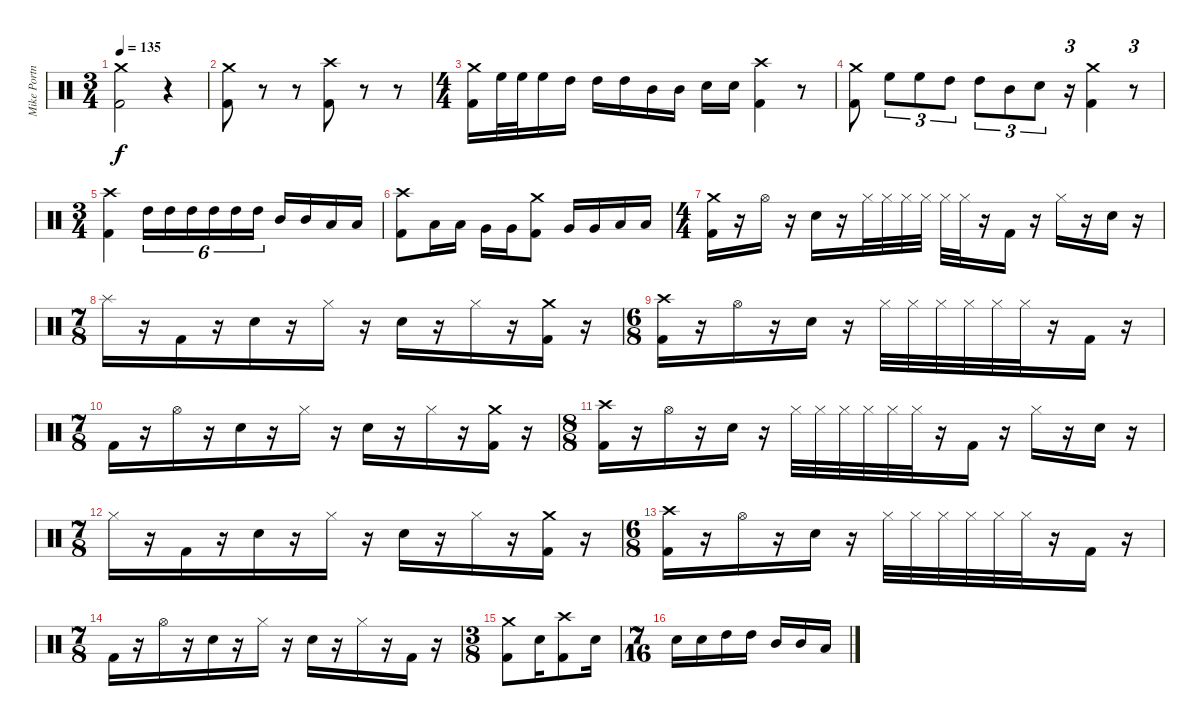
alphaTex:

\track ("Mike Portnoy Drums" "Mike Portn") {instrument percussion}
\staff {score}
\articulation defaults
\ts (3 4)
\tempo 135
\clef neutral
\ks c
("Crash medium (hit)" "Kick (hit) 2").2{dy f} r.4 |
("Crash medium (hit)" "Kick (hit) 2").8 r.8 r.8 ("Crash high (hit)" "Kick (hit) 2").8 r.8 r.8 |
\ts (4 4)
("Crash medium (hit)" "Kick (hit) 2").16 "High Floor Tom (hit)".32 "High Floor Tom (hit)".32 "High Floor Tom (hit)".16 "High Tom (hit)".16 "High Tom (hit)".16 "High Tom (hit)".16 "Mid Tom (hit)".16 "Mid Tom (hit)".16 "Snare (hit) 2".16 "Snare (hit) 2".16 ("Crash high (hit)" "Kick (hit) 2").4 r.8 |
("Crash medium (hit)" "Kick (hit) 2").8 "High Floor Tom (hit)".8{tu (3 2)} "High Floor Tom (hit)".8{tu (3 2)} "High Tom (hit)".8{tu (3 2)} "High Tom (hit)".8{tu (3 2)} "Mid Tom (hit)".8{tu (3 2)} "Snare (hit) 2".8{tu (3 2)} r.16{tu (3 2)} ("Crash medium (hit)" "Kick (hit) 2").4 r.8{tu (3 2)} |
\ts (3 4)
("Crash high (hit)" "Kick (hit) 2").4 "High Tom (hit)".16{tu (6 4)} "High Tom (hit)".16{tu (6 4)} "High Tom (hit)".16{tu (6 4)} "High Tom (hit)".16{tu (6 4)} "High Tom (hit)".16{tu (6 4)} "High Tom (hit)".16{tu (6 4)} "Mid Tom (hit)".16 "Mid Tom (hit)".16 "Low Tom (hit)".16 "Low Tom (hit)".16 |
("Crash high (hit)" "Kick (hit) 2").8 "Low Tom (hit)".16 "Low Tom (hit)".16 "Very Low Tom (hit)".16 "Very Low Tom (hit)".16 ("Crash medium (hit)" "Kick (hit) 2").8 "Very Low Tom (hit)".16 "Very Low Tom (hit)".16 "Low Floor Tom (hit)".16 "Low Floor Tom (hit)".16 |
\ts (4 4)
("Crash medium (hit)" "Kick (hit) 2").16 r.16 "Hi-Hat (open)".16 r.16 "Snare (hit) 2".16 r.16 "Hi-Hat (closed)".32 "Hi-Hat (closed)".32 "Hi-Hat (closed)".32 "Hi-Hat (closed)".32 "Hi-Hat (closed)".32 "Hi-Hat (closed)".32 r.16 "Kick (hit) 2".16 r.16 "Hi-Hat (closed)".16 r.16 "Snare (hit) 2".16 r.16 |
\ts (7 8)
"Splash (hit)".16 r.16 "Kick (hit) 2".16 r.16 "Snare (hit) 2".16 r.16 "Hi-Hat (closed)".16 r.16 "Snare (hit) 2".16 r.16 "Hi-Hat (closed)".16 r.16 ("Crash medium (hit)" "Kick (hit) 2").16 r.16 |
\ts (6 8)
("Crash high (hit)" "Kick (hit) 2").16 r.16 "Hi-Hat (open)".16 r.16 "Snare (hit) 2".16 r.16 "Hi-Hat (closed)".32 "Hi-Hat (closed)".32 "Hi-Hat (closed)".32 "Hi-Hat (closed)".32 "Hi-Hat (closed)".32 "Hi-Hat (closed)".32 r.16 "Kick (hit) 2".16 r.16 |
\ts (7 8)
"Kick (hit) 2".16 r.16 "Hi-Hat (open)".16 r.16 "Snare (hit) 2".16 r.16 "Hi-Hat (closed)".16 r.16 "Snare (hit) 2".16 r.16 "Hi-Hat (closed)".16 r.16 ("Crash medium (hit)" "Kick (hit) 2").16 r.16 |
\ts (8 8)
("Crash high (hit)" "Kick (hit) 2").16 r.16 "Hi-Hat (open)".16 r.16 "Snare (hit) 2".16 r.16 "Hi-Hat (closed)".32 "Hi-Hat (closed)".32 "Hi-Hat (closed)".32 "Hi-Hat (closed)".32 "Hi-Hat (closed)".32 "Hi-Hat (closed)".32 r.16 "Kick (hit) 2".16 r.16 "Hi-Hat (closed)".16 r.16 "Snare (hit) 2".16 r.16 |
\ts (7 8)
"Hi-Hat (closed)".16 r.16 "Kick (hit) 2".16 r.16 "Snare (hit) 2".16 r.16 "Hi-Hat (closed)".16 r.16 "Snare (hit) 2".16 r.16 "Hi-Hat (closed)".16 r.16 ("Crash medium (hit)" "Kick (hit) 2").16 r.16 |
\ts (6 8)
("Crash high (hit)" "Kick (hit) 2").16 r.16 "Hi-Hat (open)".16 r.16 "Snare (hit) 2".16 r.16 "Hi-Hat (closed)".32 "Hi-Hat (closed)".32 "Hi-Hat (closed)".32 "Hi-Hat (closed)".32 "Hi-Hat (closed)".32 "Hi-Hat (closed)".32 r.16 "Kick (hit) 2".16 r.16 |
\ts (7 8)
"Kick (hit) 2".16 r.16 "Hi-Hat (open)".16 r.16 "Snare (hit) 2".16 r.16 "Hi-Hat (closed)".16 r.16 "Snare (hit) 2".16 r.16 "Hi-Hat (closed)".16 r.16 "Kick (hit) 2".16 r.16 |
\ts (3 8)
("Crash medium (hit)" "Kick (hit) 2").8 "Snare (hit) 2".16 ("Crash high (hit)" "Kick (hit) 2").8 "Snare (hit) 2".16 |
\ts (7 16)
"Snare (hit) 2".16 "Snare (hit) 2".16 "High Tom (hit)".16 "High Tom (hit)".16 "Mid Tom (hit)".16 "Mid Tom (hit)".16 "Low Tom (hit)".16
